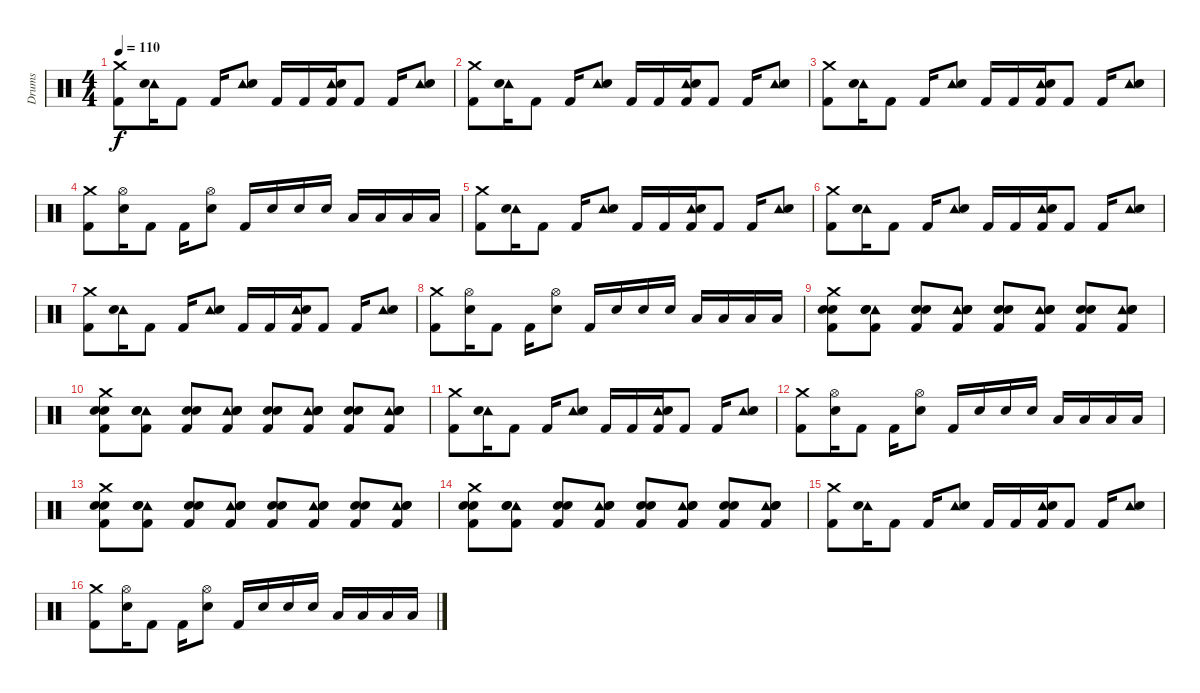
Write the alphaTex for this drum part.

\track ("Drums" "Drums") {instrument percussion}
\staff {score}
\articulation defaults
\ts (4 4)
\tempo 110
\clef neutral
\ks c
("Crash medium (hit)" "Kick (hit) 2").8{dy f} ("Tambourine (hit)" "Electric Snare (hit)").16 "Kick (hit) 2".8 "Kick (hit) 2".16 ("Tambourine (hit)" "Electric Snare (hit)").8 "Kick (hit) 2".16 "Kick (hit) 2".16 ("Tambourine (hit)" "Electric Snare (hit)" "Kick (hit) 2").16 "Kick (hit) 2".8 "Kick (hit) 2".16 ("Tambourine (hit)" "Electric Snare (hit)").8 |
("Crash medium (hit)" "Kick (hit) 2").8 ("Tambourine (hit)" "Electric Snare (hit)").16 "Kick (hit) 2".8 "Kick (hit) 2".16 ("Tambourine (hit)" "Electric Snare (hit)").8 "Kick (hit) 2".16 "Kick (hit) 2".16 ("Tambourine (hit)" "Electric Snare (hit)" "Kick (hit) 2").16 "Kick (hit) 2".8 "Kick (hit) 2".16 ("Tambourine (hit)" "Electric Snare (hit)").8 |
("Crash medium (hit)" "Kick (hit) 2").8 ("Tambourine (hit)" "Electric Snare (hit)").16 "Kick (hit) 2".8 "Kick (hit) 2".16 ("Tambourine (hit)" "Electric Snare (hit)").8 "Kick (hit) 2".16 "Kick (hit) 2".16 ("Tambourine (hit)" "Electric Snare (hit)" "Kick (hit) 2").16 "Kick (hit) 2".8 "Kick (hit) 2".16 ("Tambourine (hit)" "Electric Snare (hit)").8 |
("Crash medium (hit)" "Kick (hit) 2").8 ("Hi-Hat (open)" "Electric Snare (hit)").16 "Kick (hit) 2".8 "Kick (hit) 2".16 ("Hi-Hat (open)" "Electric Snare (hit)").8 "Kick (hit) 2".16 "Electric Snare (hit)".16 "Electric Snare (hit)".16 "Electric Snare (hit)".16 "Low Tom (hit)".16 "Low Tom (hit)".16 "Low Tom (hit)".16 "Low Floor Tom (hit)".16 |
("Crash medium (hit)" "Kick (hit) 2").8 ("Tambourine (hit)" "Electric Snare (hit)").16 "Kick (hit) 2".8 "Kick (hit) 2".16 ("Tambourine (hit)" "Electric Snare (hit)").8 "Kick (hit) 2".16 "Kick (hit) 2".16 ("Tambourine (hit)" "Electric Snare (hit)" "Kick (hit) 2").16 "Kick (hit) 2".8 "Kick (hit) 2".16 ("Tambourine (hit)" "Electric Snare (hit)").8 |
("Crash medium (hit)" "Kick (hit) 2").8 ("Tambourine (hit)" "Electric Snare (hit)").16 "Kick (hit) 2".8 "Kick (hit) 2".16 ("Tambourine (hit)" "Electric Snare (hit)").8 "Kick (hit) 2".16 "Kick (hit) 2".16 ("Tambourine (hit)" "Electric Snare (hit)" "Kick (hit) 2").16 "Kick (hit) 2".8 "Kick (hit) 2".16 ("Tambourine (hit)" "Electric Snare (hit)").8 |
("Crash medium (hit)" "Kick (hit) 2").8 ("Tambourine (hit)" "Electric Snare (hit)").16 "Kick (hit) 2".8 "Kick (hit) 2".16 ("Tambourine (hit)" "Electric Snare (hit)").8 "Kick (hit) 2".16 "Kick (hit) 2".16 ("Tambourine (hit)" "Electric Snare (hit)" "Kick (hit) 2").16 "Kick (hit) 2".8 "Kick (hit) 2".16 ("Tambourine (hit)" "Electric Snare (hit)").8 |
("Crash medium (hit)" "Kick (hit) 2").8 ("Hi-Hat (open)" "Electric Snare (hit)").16 "Kick (hit) 2".8 "Kick (hit) 2".16 ("Hi-Hat (open)" "Electric Snare (hit)").8 "Kick (hit) 2".16 "Electric Snare (hit)".16 "Electric Snare (hit)".16 "Electric Snare (hit)".16 "Low Tom (hit)".16 "Low Tom (hit)".16 "Low Tom (hit)".16 "Low Floor Tom (hit)".16 |
("Crash medium (hit)" "Snare (hit) 2" "Electric Snare (hit)" "Kick (hit) 2").8 ("Tambourine (hit)" "Snare (hit) 2" "Electric Snare (hit)" "Kick (hit) 2").8 ("Snare (hit) 2" "Electric Snare (hit)" "Kick (hit) 2").8 ("Tambourine (hit)" "Snare (hit) 2" "Electric Snare (hit)" "Kick (hit) 2").8 ("Snare (hit) 2" "Electric Snare (hit)" "Kick (hit) 2").8 ("Tambourine (hit)" "Snare (hit) 2" "Electric Snare (hit)" "Kick (hit) 2").8 ("Snare (hit) 2" "Electric Snare (hit)" "Kick (hit) 2").8 ("Tambourine (hit)" "Snare (hit) 2" "Electric Snare (hit)" "Kick (hit) 2").8 |
("Crash medium (hit)" "Snare (hit) 2" "Electric Snare (hit)" "Kick (hit) 2").8 ("Tambourine (hit)" "Snare (hit) 2" "Electric Snare (hit)" "Kick (hit) 2").8 ("Snare (hit) 2" "Electric Snare (hit)" "Kick (hit) 2").8 ("Tambourine (hit)" "Snare (hit) 2" "Electric Snare (hit)" "Kick (hit) 2").8 ("Snare (hit) 2" "Electric Snare (hit)" "Kick (hit) 2").8 ("Tambourine (hit)" "Snare (hit) 2" "Electric Snare (hit)" "Kick (hit) 2").8 ("Snare (hit) 2" "Electric Snare (hit)" "Kick (hit) 2").8 ("Tambourine (hit)" "Snare (hit) 2" "Electric Snare (hit)" "Kick (hit) 2").8 |
("Crash medium (hit)" "Kick (hit) 2").8 ("Tambourine (hit)" "Electric Snare (hit)").16 "Kick (hit) 2".8 "Kick (hit) 2".16 ("Tambourine (hit)" "Electric Snare (hit)").8 "Kick (hit) 2".16 "Kick (hit) 2".16 ("Tambourine (hit)" "Electric Snare (hit)" "Kick (hit) 2").16 "Kick (hit) 2".8 "Kick (hit) 2".16 ("Tambourine (hit)" "Electric Snare (hit)").8 |
("Crash medium (hit)" "Kick (hit) 2").8 ("Hi-Hat (open)" "Electric Snare (hit)").16 "Kick (hit) 2".8 "Kick (hit) 2".16 ("Hi-Hat (open)" "Electric Snare (hit)").8 "Kick (hit) 2".16 "Electric Snare (hit)".16 "Electric Snare (hit)".16 "Electric Snare (hit)".16 "Low Tom (hit)".16 "Low Tom (hit)".16 "Low Tom (hit)".16 "Low Floor Tom (hit)".16 |
("Crash medium (hit)" "Snare (hit) 2" "Electric Snare (hit)" "Kick (hit) 2").8 ("Tambourine (hit)" "Snare (hit) 2" "Electric Snare (hit)" "Kick (hit) 2").8 ("Snare (hit) 2" "Electric Snare (hit)" "Kick (hit) 2").8 ("Tambourine (hit)" "Snare (hit) 2" "Electric Snare (hit)" "Kick (hit) 2").8 ("Snare (hit) 2" "Electric Snare (hit)" "Kick (hit) 2").8 ("Tambourine (hit)" "Snare (hit) 2" "Electric Snare (hit)" "Kick (hit) 2").8 ("Snare (hit) 2" "Electric Snare (hit)" "Kick (hit) 2").8 ("Tambourine (hit)" "Snare (hit) 2" "Electric Snare (hit)" "Kick (hit) 2").8 |
("Crash medium (hit)" "Snare (hit) 2" "Electric Snare (hit)" "Kick (hit) 2").8 ("Tambourine (hit)" "Snare (hit) 2" "Electric Snare (hit)" "Kick (hit) 2").8 ("Snare (hit) 2" "Electric Snare (hit)" "Kick (hit) 2").8 ("Tambourine (hit)" "Snare (hit) 2" "Electric Snare (hit)" "Kick (hit) 2").8 ("Snare (hit) 2" "Electric Snare (hit)" "Kick (hit) 2").8 ("Tambourine (hit)" "Snare (hit) 2" "Electric Snare (hit)" "Kick (hit) 2").8 ("Snare (hit) 2" "Electric Snare (hit)" "Kick (hit) 2").8 ("Tambourine (hit)" "Snare (hit) 2" "Electric Snare (hit)" "Kick (hit) 2").8 |
("Crash medium (hit)" "Kick (hit) 2").8 ("Tambourine (hit)" "Electric Snare (hit)").16 "Kick (hit) 2".8 "Kick (hit) 2".16 ("Tambourine (hit)" "Electric Snare (hit)").8 "Kick (hit) 2".16 "Kick (hit) 2".16 ("Tambourine (hit)" "Electric Snare (hit)" "Kick (hit) 2").16 "Kick (hit) 2".8 "Kick (hit) 2".16 ("Tambourine (hit)" "Electric Snare (hit)").8 |
("Crash medium (hit)" "Kick (hit) 2").8 ("Hi-Hat (open)" "Electric Snare (hit)").16 "Kick (hit) 2".8 "Kick (hit) 2".16 ("Hi-Hat (open)" "Electric Snare (hit)").8 "Kick (hit) 2".16 "Electric Snare (hit)".16 "Electric Snare (hit)".16 "Electric Snare (hit)".16 "Low Tom (hit)".16 "Low Tom (hit)".16 "Low Tom (hit)".16 "Low Floor Tom (hit)".16
